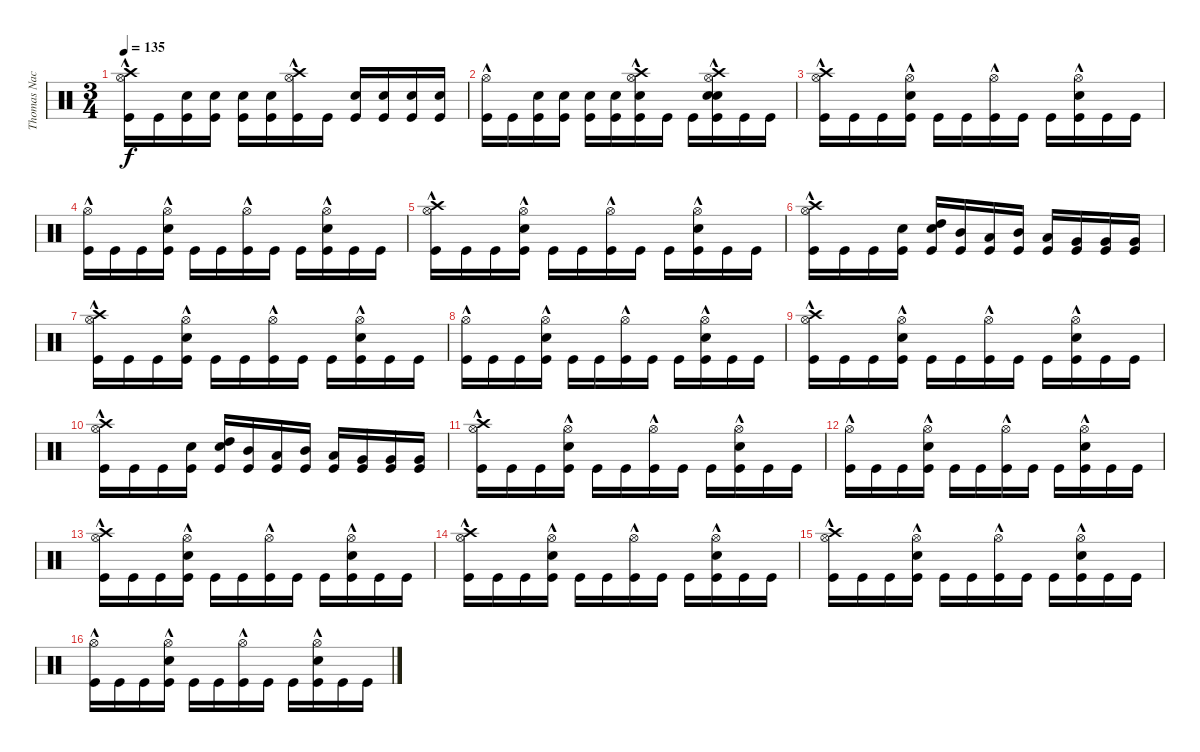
\track ("Thomas Nack" "Thomas Nac") {instrument percussion}
\staff {score}
\articulation defaults
\ts (3 4)
\tempo 135
\clef neutral
\ks c
("Crash high (hit)" "Hi-Hat (open)"{hac} "Kick (hit)").16{dy f} "Kick (hit)".16 ("Electric Snare (hit)" "Kick (hit)").16 ("Electric Snare (hit)" "Kick (hit)").16 ("Electric Snare (hit)" "Kick (hit)").16 ("Electric Snare (hit)" "Kick (hit)").16 ("Crash high (hit)" "Hi-Hat (open)"{hac} "Kick (hit)").16 "Kick (hit)".16 ("Electric Snare (hit)" "Kick (hit)").16 ("Electric Snare (hit)" "Kick (hit)").16 ("Electric Snare (hit)" "Kick (hit)").16 ("Electric Snare (hit)" "Kick (hit)").16 |
("Hi-Hat (open)"{hac} "Kick (hit)").16 "Kick (hit)".16 ("Electric Snare (hit)" "Kick (hit)").16 ("Electric Snare (hit)" "Kick (hit)").16 ("Electric Snare (hit)" "Kick (hit)").16 ("Electric Snare (hit)" "Kick (hit)").16 ("Crash high (hit)"{hac} "Snare (hit) 2"{hac} "Hi-Hat (open)"{hac} "Kick (hit)").16 "Kick (hit)".16 "Kick (hit)".16 ("Crash high (hit)"{hac} "Snare (hit) 2"{hac} "Hi-Hat (open)"{hac} "Kick (hit)" "Electric Snare (hit)").16 "Kick (hit)".16 "Kick (hit)".16 |
("Crash high (hit)" "Hi-Hat (open)"{hac} "Kick (hit)").16 "Kick (hit)".16 "Kick (hit)".16 ("Hi-Hat (open)"{hac} "Kick (hit)" "Electric Snare (hit)").16 "Kick (hit)".16 "Kick (hit)".16 ("Hi-Hat (open)"{hac} "Kick (hit)").16 "Kick (hit)".16 "Kick (hit)".16 ("Hi-Hat (open)"{hac} "Kick (hit)" "Electric Snare (hit)").16 "Kick (hit)".16 "Kick (hit)".16 |
("Hi-Hat (open)"{hac} "Kick (hit)").16 "Kick (hit)".16 "Kick (hit)".16 ("Hi-Hat (open)"{hac} "Kick (hit)" "Electric Snare (hit)").16 "Kick (hit)".16 "Kick (hit)".16 ("Hi-Hat (open)"{hac} "Kick (hit)").16 "Kick (hit)".16 "Kick (hit)".16 ("Hi-Hat (open)"{hac} "Kick (hit)" "Electric Snare (hit)").16 "Kick (hit)".16 "Kick (hit)".16 |
("Crash high (hit)" "Hi-Hat (open)"{hac} "Kick (hit)").16 "Kick (hit)".16 "Kick (hit)".16 ("Hi-Hat (open)"{hac} "Kick (hit)" "Electric Snare (hit)").16 "Kick (hit)".16 "Kick (hit)".16 ("Hi-Hat (open)"{hac} "Kick (hit)").16 "Kick (hit)".16 "Kick (hit)".16 ("Hi-Hat (open)"{hac} "Kick (hit)" "Electric Snare (hit)").16 "Kick (hit)".16 "Kick (hit)".16 |
("Crash high (hit)" "Hi-Hat (open)"{hac} "Kick (hit)").16 "Kick (hit)".16 "Kick (hit)".16 ("Electric Snare (hit)" "Kick (hit)").16 ("Electric Snare (hit)" "High Tom (hit)" "Kick (hit)").16 ("Mid Tom (hit)" "Kick (hit)").16 ("Low Tom (hit)" "Kick (hit)").16 ("Mid Tom (hit)" "Kick (hit)").16 ("Low Tom (hit)" "Kick (hit)").16 ("Very Low Tom (hit)" "Kick (hit)").16 ("Very Low Tom (hit)" "Kick (hit)").16 ("Very Low Tom (hit)" "Kick (hit)").16 |
("Crash high (hit)" "Hi-Hat (open)"{hac} "Kick (hit)").16 "Kick (hit)".16 "Kick (hit)".16 ("Hi-Hat (open)"{hac} "Kick (hit)" "Electric Snare (hit)").16 "Kick (hit)".16 "Kick (hit)".16 ("Hi-Hat (open)"{hac} "Kick (hit)").16 "Kick (hit)".16 "Kick (hit)".16 ("Hi-Hat (open)"{hac} "Kick (hit)" "Electric Snare (hit)").16 "Kick (hit)".16 "Kick (hit)".16 |
("Hi-Hat (open)"{hac} "Kick (hit)").16 "Kick (hit)".16 "Kick (hit)".16 ("Hi-Hat (open)"{hac} "Kick (hit)" "Electric Snare (hit)").16 "Kick (hit)".16 "Kick (hit)".16 ("Hi-Hat (open)"{hac} "Kick (hit)").16 "Kick (hit)".16 "Kick (hit)".16 ("Hi-Hat (open)"{hac} "Kick (hit)" "Electric Snare (hit)").16 "Kick (hit)".16 "Kick (hit)".16 |
("Crash high (hit)" "Hi-Hat (open)"{hac} "Kick (hit)").16 "Kick (hit)".16 "Kick (hit)".16 ("Hi-Hat (open)"{hac} "Kick (hit)" "Electric Snare (hit)").16 "Kick (hit)".16 "Kick (hit)".16 ("Hi-Hat (open)"{hac} "Kick (hit)").16 "Kick (hit)".16 "Kick (hit)".16 ("Hi-Hat (open)"{hac} "Kick (hit)" "Electric Snare (hit)").16 "Kick (hit)".16 "Kick (hit)".16 |
("Crash high (hit)" "Hi-Hat (open)"{hac} "Kick (hit)").16 "Kick (hit)".16 "Kick (hit)".16 ("Electric Snare (hit)" "Kick (hit)").16 ("Electric Snare (hit)" "High Tom (hit)" "Kick (hit)").16 ("Mid Tom (hit)" "Kick (hit)").16 ("Low Tom (hit)" "Kick (hit)").16 ("Mid Tom (hit)" "Kick (hit)").16 ("Low Tom (hit)" "Kick (hit)").16 ("Very Low Tom (hit)" "Kick (hit)").16 ("Very Low Tom (hit)" "Kick (hit)").16 ("Very Low Tom (hit)" "Kick (hit)").16 |
("Crash high (hit)" "Hi-Hat (open)"{hac} "Kick (hit)").16 "Kick (hit)".16 "Kick (hit)".16 ("Hi-Hat (open)"{hac} "Kick (hit)" "Electric Snare (hit)").16 "Kick (hit)".16 "Kick (hit)".16 ("Hi-Hat (open)"{hac} "Kick (hit)").16 "Kick (hit)".16 "Kick (hit)".16 ("Hi-Hat (open)"{hac} "Kick (hit)" "Electric Snare (hit)").16 "Kick (hit)".16 "Kick (hit)".16 |
("Hi-Hat (open)"{hac} "Kick (hit)").16 "Kick (hit)".16 "Kick (hit)".16 ("Hi-Hat (open)"{hac} "Kick (hit)" "Electric Snare (hit)").16 "Kick (hit)".16 "Kick (hit)".16 ("Hi-Hat (open)"{hac} "Kick (hit)").16 "Kick (hit)".16 "Kick (hit)".16 ("Hi-Hat (open)"{hac} "Kick (hit)" "Electric Snare (hit)").16 "Kick (hit)".16 "Kick (hit)".16 |
("Crash high (hit)" "Hi-Hat (open)"{hac} "Kick (hit)").16 "Kick (hit)".16 "Kick (hit)".16 ("Hi-Hat (open)"{hac} "Kick (hit)" "Electric Snare (hit)").16 "Kick (hit)".16 "Kick (hit)".16 ("Hi-Hat (open)"{hac} "Kick (hit)").16 "Kick (hit)".16 "Kick (hit)".16 ("Hi-Hat (open)"{hac} "Kick (hit)" "Electric Snare (hit)").16 "Kick (hit)".16 "Kick (hit)".16 |
("Crash high (hit)" "Hi-Hat (open)"{hac} "Kick (hit)").16 "Kick (hit)".16 "Kick (hit)".16 ("Hi-Hat (open)"{hac} "Kick (hit)" "Electric Snare (hit)").16 "Kick (hit)".16 "Kick (hit)".16 ("Hi-Hat (open)"{hac} "Kick (hit)").16 "Kick (hit)".16 "Kick (hit)".16 ("Hi-Hat (open)"{hac} "Kick (hit)" "Electric Snare (hit)").16 "Kick (hit)".16 "Kick (hit)".16 |
("Crash high (hit)" "Hi-Hat (open)"{hac} "Kick (hit)").16 "Kick (hit)".16 "Kick (hit)".16 ("Hi-Hat (open)"{hac} "Kick (hit)" "Electric Snare (hit)").16 "Kick (hit)".16 "Kick (hit)".16 ("Hi-Hat (open)"{hac} "Kick (hit)").16 "Kick (hit)".16 "Kick (hit)".16 ("Hi-Hat (open)"{hac} "Kick (hit)" "Electric Snare (hit)").16 "Kick (hit)".16 "Kick (hit)".16 |
("Hi-Hat (open)"{hac} "Kick (hit)").16 "Kick (hit)".16 "Kick (hit)".16 ("Hi-Hat (open)"{hac} "Kick (hit)" "Electric Snare (hit)").16 "Kick (hit)".16 "Kick (hit)".16 ("Hi-Hat (open)"{hac} "Kick (hit)").16 "Kick (hit)".16 "Kick (hit)".16 ("Hi-Hat (open)"{hac} "Kick (hit)" "Electric Snare (hit)").16 "Kick (hit)".16 "Kick (hit)".16
